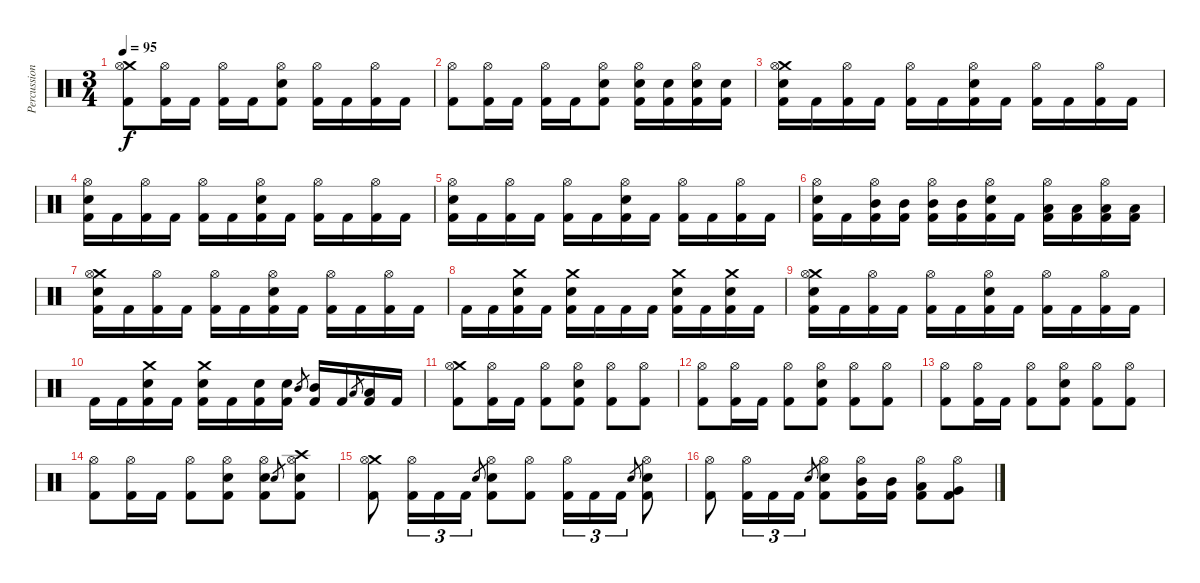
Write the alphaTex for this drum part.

\track ("Percussion" "Percussion") {instrument percussion}
\staff {score}
\articulation defaults
\ts (3 4)
\tempo 95
\clef neutral
\ks c
("Crash medium (hit)" "Hi-Hat (open)" "Kick (hit) 2").8{dy f} ("Hi-Hat (open)" "Kick (hit) 2").16 "Kick (hit) 2".16 ("Hi-Hat (open)" "Kick (hit) 2").16 "Kick (hit) 2".16 ("Hi-Hat (open)" "Electric Snare (hit)" "Kick (hit) 2").8 ("Hi-Hat (open)" "Kick (hit) 2").16 "Kick (hit) 2".16 ("Hi-Hat (open)" "Kick (hit) 2").16 "Kick (hit) 2".16 |
("Hi-Hat (open)" "Kick (hit) 2").8 ("Hi-Hat (open)" "Kick (hit) 2").16 "Kick (hit) 2".16 ("Hi-Hat (open)" "Kick (hit) 2").16 "Kick (hit) 2".16 ("Hi-Hat (open)" "Electric Snare (hit)" "Kick (hit) 2").8 ("Hi-Hat (open)" "Electric Snare (hit)" "Kick (hit) 2").16 ("Electric Snare (hit)" "Kick (hit) 2").16 ("Hi-Hat (open)" "Electric Snare (hit)" "Kick (hit) 2").16 ("Electric Snare (hit)" "Kick (hit) 2").16 |
("Crash medium (hit)" "Hi-Hat (open)" "Electric Snare (hit)" "Kick (hit) 2").16 "Kick (hit) 2".16 ("Hi-Hat (open)" "Kick (hit) 2").16 "Kick (hit) 2".16 ("Hi-Hat (open)" "Kick (hit) 2").16 "Kick (hit) 2".16 ("Hi-Hat (open)" "Electric Snare (hit)" "Kick (hit) 2").16 "Kick (hit) 2".16 ("Hi-Hat (open)" "Kick (hit) 2").16 "Kick (hit) 2".16 ("Hi-Hat (open)" "Kick (hit) 2").16 "Kick (hit) 2".16 |
("Hi-Hat (open)" "Electric Snare (hit)" "Kick (hit) 2").16 "Kick (hit) 2".16 ("Hi-Hat (open)" "Kick (hit) 2").16 "Kick (hit) 2".16 ("Hi-Hat (open)" "Kick (hit) 2").16 "Kick (hit) 2".16 ("Hi-Hat (open)" "Electric Snare (hit)" "Kick (hit) 2").16 "Kick (hit) 2".16 ("Hi-Hat (open)" "Kick (hit) 2").16 "Kick (hit) 2".16 ("Hi-Hat (open)" "Kick (hit) 2").16 "Kick (hit) 2".16 |
("Hi-Hat (open)" "Electric Snare (hit)" "Kick (hit) 2").16 "Kick (hit) 2".16 ("Hi-Hat (open)" "Kick (hit) 2").16 "Kick (hit) 2".16 ("Hi-Hat (open)" "Kick (hit) 2").16 "Kick (hit) 2".16 ("Hi-Hat (open)" "Electric Snare (hit)" "Kick (hit) 2").16 "Kick (hit) 2".16 ("Hi-Hat (open)" "Kick (hit) 2").16 "Kick (hit) 2".16 ("Hi-Hat (open)" "Kick (hit) 2").16 "Kick (hit) 2".16 |
("Hi-Hat (open)" "Electric Snare (hit)" "Kick (hit) 2").16 "Kick (hit) 2".16 ("Hi-Hat (open)" "Mid Tom (hit)" "Kick (hit) 2").16 ("Mid Tom (hit)" "Kick (hit) 2").16 ("Hi-Hat (open)" "Mid Tom (hit)" "Kick (hit) 2").16 ("Mid Tom (hit)" "Kick (hit) 2").16 ("Hi-Hat (open)" "Electric Snare (hit)" "Kick (hit) 2").16 "Kick (hit) 2".16 ("Hi-Hat (open)" "Low Tom (hit)" "Kick (hit) 2").16 ("Low Tom (hit)" "Kick (hit) 2").16 ("Hi-Hat (open)" "Low Tom (hit)" "Kick (hit) 2").16 ("Low Tom (hit)" "Kick (hit) 2").16 |
("Crash medium (hit)" "Hi-Hat (open)" "Electric Snare (hit)" "Kick (hit) 2").16 "Kick (hit) 2".16 ("Hi-Hat (open)" "Kick (hit) 2").16 "Kick (hit) 2".16 ("Hi-Hat (open)" "Kick (hit) 2").16 "Kick (hit) 2".16 ("Hi-Hat (open)" "Electric Snare (hit)" "Kick (hit) 2").16 "Kick (hit) 2".16 ("Hi-Hat (open)" "Kick (hit) 2").16 "Kick (hit) 2".16 ("Hi-Hat (open)" "Kick (hit) 2").16 "Kick (hit) 2".16 |
"Kick (hit) 2".16 "Kick (hit) 2".16 ("Crash medium (hit)" "Electric Snare (hit)" "Kick (hit) 2").16 "Kick (hit) 2".16 ("Crash medium (hit)" "Electric Snare (hit)" "Kick (hit) 2").16 "Kick (hit) 2".16 "Kick (hit) 2".16 "Kick (hit) 2".16 ("Crash medium (hit)" "Electric Snare (hit)" "Kick (hit) 2").16 "Kick (hit) 2".16 ("Crash medium (hit)" "Electric Snare (hit)" "Kick (hit) 2").16 "Kick (hit) 2".16 |
("Crash medium (hit)" "Hi-Hat (open)" "Electric Snare (hit)" "Kick (hit) 2").16 "Kick (hit) 2".16 ("Hi-Hat (open)" "Kick (hit) 2").16 "Kick (hit) 2".16 ("Hi-Hat (open)" "Kick (hit) 2").16 "Kick (hit) 2".16 ("Hi-Hat (open)" "Electric Snare (hit)" "Kick (hit) 2").16 "Kick (hit) 2".16 ("Hi-Hat (open)" "Kick (hit) 2").16 "Kick (hit) 2".16 ("Hi-Hat (open)" "Kick (hit) 2").16 "Kick (hit) 2".16 |
"Kick (hit) 2".16 "Kick (hit) 2".16 ("Crash medium (hit)" "Electric Snare (hit)" "Kick (hit) 2").16 "Kick (hit) 2".16 ("Crash medium (hit)" "Electric Snare (hit)" "Kick (hit) 2").16 "Kick (hit) 2".16 ("Electric Snare (hit)" "Kick (hit) 2").16 ("Electric Snare (hit)" "Kick (hit) 2").16 "Mid Tom (hit)".8{gr} ("Mid Tom (hit)" "Kick (hit) 2").16 "Kick (hit) 2".16 "Low Tom (hit)".8{gr} ("Low Tom (hit)" "Kick (hit) 2").16 "Kick (hit) 2".16 |
("Crash medium (hit)" "Hi-Hat (open)" "Kick (hit) 2").8 ("Hi-Hat (open)" "Kick (hit) 2").16 "Kick (hit) 2".16 ("Hi-Hat (open)" "Kick (hit) 2").8 ("Hi-Hat (open)" "Electric Snare (hit)" "Kick (hit) 2").8 ("Hi-Hat (open)" "Kick (hit) 2").8 ("Hi-Hat (open)" "Kick (hit) 2").8 |
("Hi-Hat (open)" "Kick (hit) 2").8 ("Hi-Hat (open)" "Kick (hit) 2").16 "Kick (hit) 2".16 ("Hi-Hat (open)" "Kick (hit) 2").8 ("Hi-Hat (open)" "Electric Snare (hit)" "Kick (hit) 2").8 ("Hi-Hat (open)" "Kick (hit) 2").8 ("Hi-Hat (open)" "Kick (hit) 2").8 |
("Hi-Hat (open)" "Kick (hit) 2").8 ("Hi-Hat (open)" "Kick (hit) 2").16 "Kick (hit) 2".16 ("Hi-Hat (open)" "Kick (hit) 2").8 ("Hi-Hat (open)" "Electric Snare (hit)" "Kick (hit) 2").8 ("Hi-Hat (open)" "Kick (hit) 2").8 ("Hi-Hat (open)" "Kick (hit) 2").8 |
("Hi-Hat (open)" "Kick (hit) 2").8 ("Hi-Hat (open)" "Kick (hit) 2").16 "Kick (hit) 2".16 ("Hi-Hat (open)" "Kick (hit) 2").8 ("Hi-Hat (open)" "Electric Snare (hit)" "Kick (hit) 2").8 ("Hi-Hat (open)" "Electric Snare (hit)" "Kick (hit) 2").8 "Electric Snare (hit)".8{gr} ("Crash high (hit)" "Hi-Hat (open)" "Electric Snare (hit)" "Kick (hit) 2").8 |
("Crash medium (hit)" "Hi-Hat (open)" "Kick (hit) 2").8 ("Hi-Hat (open)" "Kick (hit) 2").16{tu (3 2)} "Kick (hit) 2".16{tu (3 2)} "Kick (hit) 2".16{tu (3 2)} "Electric Snare (hit)".8{gr} ("Hi-Hat (open)" "Electric Snare (hit)" "Kick (hit) 2").8 ("Hi-Hat (open)" "Kick (hit) 2").8 ("Hi-Hat (open)" "Kick (hit) 2").16{tu (3 2)} "Kick (hit) 2".16{tu (3 2)} "Kick (hit) 2".16{tu (3 2)} "Electric Snare (hit)".8{gr} ("Hi-Hat (open)" "Electric Snare (hit)" "Kick (hit) 2").8 |
("Hi-Hat (open)" "Kick (hit) 2").8 ("Hi-Hat (open)" "Kick (hit) 2").16{tu (3 2)} "Kick (hit) 2".16{tu (3 2)} "Kick (hit) 2".16{tu (3 2)} "Electric Snare (hit)".8{gr} ("Hi-Hat (open)" "Electric Snare (hit)" "Kick (hit) 2").8 ("Hi-Hat (open)" "Mid Tom (hit)" "Kick (hit) 2").16 ("Mid Tom (hit)" "Kick (hit) 2").16 ("Hi-Hat (open)" "Low Tom (hit)" "Kick (hit) 2").8 ("Hi-Hat (open)" "Very Low Tom (hit)" "Kick (hit) 2").8
